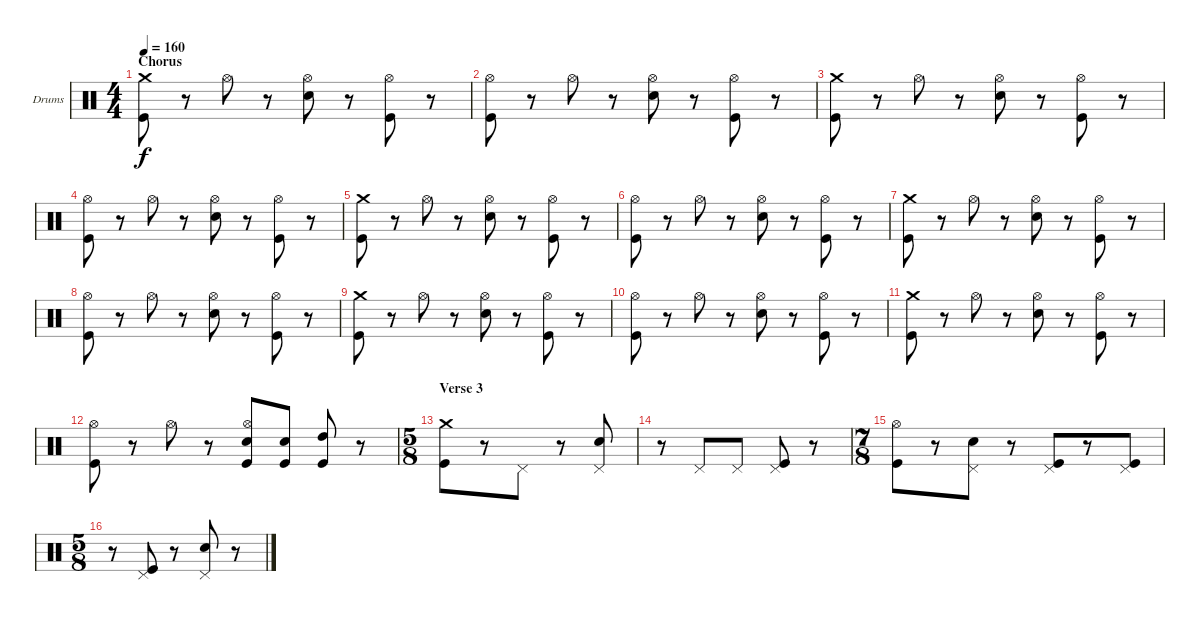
\bracketExtendMode groupsimilarinstruments
\firstSystemTrackNameOrientation horizontal
\otherSystemsTrackNameOrientation horizontal
\track ("Drumkit" "Drums") {instrument percussion}
\staff {score}
\articulation defaults
\ts (4 4)
\section ("" "Chorus")
\tempo 160
\clef neutral
\ks c
("Crash medium (hit)" "Kick (hit)").8{dy f} r.8 "Hi-Hat (open)".8 r.8 ("Hi-Hat (open)" "Snare (hit) 2").8 r.8 ("Hi-Hat (open)" "Kick (hit)").8 r.8 |
("Hi-Hat (open)" "Kick (hit)").8 r.8 "Hi-Hat (open)".8 r.8 ("Hi-Hat (open)" "Snare (hit) 2").8 r.8 ("Hi-Hat (open)" "Kick (hit)").8 r.8 |
("Crash medium (hit)" "Kick (hit)").8 r.8 "Hi-Hat (open)".8 r.8 ("Hi-Hat (open)" "Snare (hit) 2").8 r.8 ("Hi-Hat (open)" "Kick (hit)").8 r.8 |
("Hi-Hat (open)" "Kick (hit)").8 r.8 "Hi-Hat (open)".8 r.8 ("Hi-Hat (open)" "Snare (hit) 2").8 r.8 ("Hi-Hat (open)" "Kick (hit)").8 r.8 |
("Crash medium (hit)" "Kick (hit)").8 r.8 "Hi-Hat (open)".8 r.8 ("Hi-Hat (open)" "Snare (hit) 2").8 r.8 ("Hi-Hat (open)" "Kick (hit)").8 r.8 |
("Hi-Hat (open)" "Kick (hit)").8 r.8 "Hi-Hat (open)".8 r.8 ("Hi-Hat (open)" "Snare (hit) 2").8 r.8 ("Hi-Hat (open)" "Kick (hit)").8 r.8 |
("Crash medium (hit)" "Kick (hit)").8 r.8 "Hi-Hat (open)".8 r.8 ("Hi-Hat (open)" "Snare (hit) 2").8 r.8 ("Hi-Hat (open)" "Kick (hit)").8 r.8 |
("Hi-Hat (open)" "Kick (hit)").8 r.8 "Hi-Hat (open)".8 r.8 ("Hi-Hat (open)" "Snare (hit) 2").8 r.8 ("Hi-Hat (open)" "Kick (hit)").8 r.8 |
("Crash medium (hit)" "Kick (hit)").8 r.8 "Hi-Hat (open)".8 r.8 ("Hi-Hat (open)" "Snare (hit) 2").8 r.8 ("Hi-Hat (open)" "Kick (hit)").8 r.8 |
("Hi-Hat (open)" "Kick (hit)").8 r.8 "Hi-Hat (open)".8 r.8 ("Hi-Hat (open)" "Snare (hit) 2").8 r.8 ("Hi-Hat (open)" "Kick (hit)").8 r.8 |
("Crash medium (hit)" "Kick (hit)").8 r.8 "Hi-Hat (open)".8 r.8 ("Hi-Hat (open)" "Snare (hit) 2").8 r.8 ("Hi-Hat (open)" "Kick (hit)").8 r.8 |
("Hi-Hat (open)" "Kick (hit)").8 r.8 "Hi-Hat (open)".8 r.8 ("Hi-Hat (open)" "Snare (hit) 2" "Kick (hit)").8 ("Snare (hit) 2" "Kick (hit)").8 ("High Tom (hit)" "Kick (hit)").8 r.8 |
\ts (5 8)
\section ("" "Verse 3")
("Crash medium (hit)" "Kick (hit)").8 r.8 "Pedal Hi-Hat (hit)".8 r.8 ("Pedal Hi-Hat (hit)" "Snare (hit) 2").8 |
r.8 "Pedal Hi-Hat (hit)".8 "Pedal Hi-Hat (hit)".8 ("Pedal Hi-Hat (hit)" "Kick (hit)").8 r.8 |
\ts (7 8)
("Hi-Hat (open)" "Kick (hit)").8 r.8 ("Pedal Hi-Hat (hit)" "Snare (hit) 2").8 r.8 ("Pedal Hi-Hat (hit)" "Kick (hit)").8 r.8 ("Pedal Hi-Hat (hit)" "Kick (hit)").8 |
\ts (5 8)
r.8 ("Pedal Hi-Hat (hit)" "Kick (hit)").8 r.8 ("Pedal Hi-Hat (hit)" "Snare (hit) 2").8 r.8
